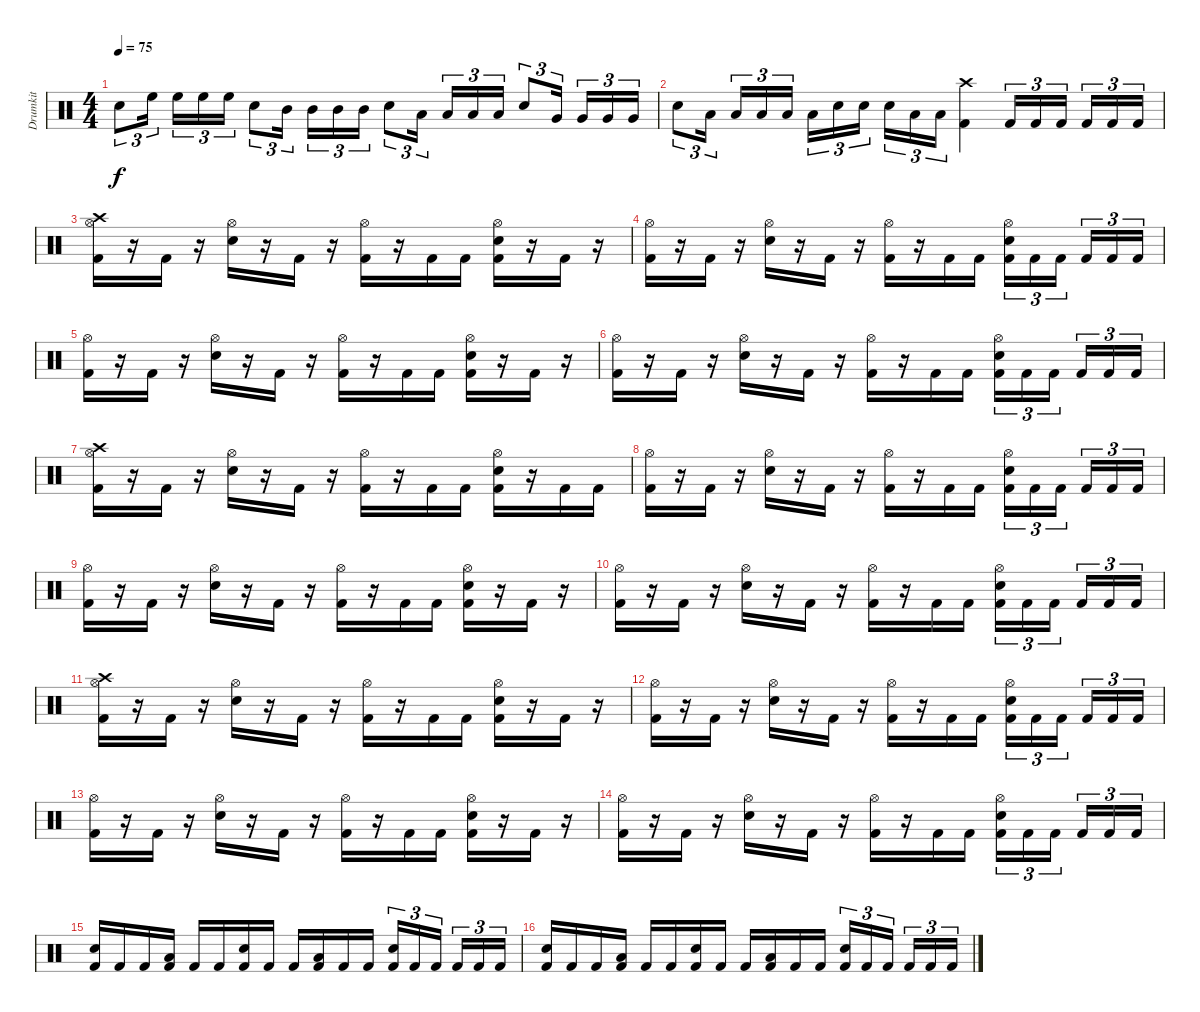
\track ("Drumkit" "Drumkit") {instrument percussion}
\staff {score}
\articulation defaults
\ts (4 4)
\tempo 75
\clef neutral
\ks c "Snare (hit) 2".8{tu (3 2) dy f} "High Floor Tom (hit)".16{tu (3 2)} "High Floor Tom (hit)".16{tu (3 2)} "High Floor Tom (hit)".16{tu (3 2)} "High Floor Tom (hit)".16{tu (3 2)} "Snare (hit) 2".8{tu (3 2)} "Mid Tom (hit)".16{tu (3 2)} "Mid Tom (hit)".16{tu (3 2)} "Mid Tom (hit)".16{tu (3 2)} "Mid Tom (hit)".16{tu (3 2)} "Snare (hit) 2".8{tu (3 2)} "Low Tom (hit)".16{tu (3 2)} "Low Tom (hit)".16{tu (3 2)} "Low Tom (hit)".16{tu (3 2)} "Low Tom (hit)".16{tu (3 2)} "Snare (hit) 2".8{tu (3 2)} "Very Low Tom (hit)".16{tu (3 2)} "Very Low Tom (hit)".16{tu (3 2)} "Very Low Tom (hit)".16{tu (3 2)} "Very Low Tom (hit)".16{tu (3 2)}
|
"Snare (hit) 2".8{tu (3 2)} "Low Floor Tom (hit)".16{tu (3 2)} "Low Floor Tom (hit)".16{tu (3 2)} "Low Floor Tom (hit)".16{tu (3 2)} "Low Floor Tom (hit)".16{tu (3 2)} "Low Floor Tom (hit)".16{tu (3 2)} "Snare (hit) 2".16{tu (3 2)} "Snare (hit) 2".16{tu (3 2)} "Snare (hit) 2".16{tu (3 2)} "Low Tom (hit)".16{tu (3 2)} "Low Tom (hit)".16{tu (3 2)} ("Crash high (hit)" "Kick (hit) 2").4 "Kick (hit) 2".16{tu (3 2)} "Kick (hit) 2".16{tu (3 2)} "Kick (hit) 2".16{tu (3 2)} "Kick (hit) 2".16{tu (3 2)} "Kick (hit) 2".16{tu (3 2)} "Kick (hit) 2".16{tu (3 2)} |
("Crash high (hit)" "Hi-Hat (open)" "Kick (hit) 2").16 r.16 "Kick (hit) 2".16 r.16 ("Hi-Hat (open)" "Snare (hit) 2").16 r.16 "Kick (hit) 2".16 r.16 ("Hi-Hat (open)" "Kick (hit) 2").16 r.16 "Kick (hit) 2".16 "Kick (hit) 2".16 ("Hi-Hat (open)" "Snare (hit) 2" "Kick (hit) 2").16 r.16 "Kick (hit) 2".16 r.16 |
("Hi-Hat (open)" "Kick (hit) 2").16 r.16 "Kick (hit) 2".16 r.16 ("Hi-Hat (open)" "Snare (hit) 2").16 r.16 "Kick (hit) 2".16 r.16 ("Hi-Hat (open)" "Kick (hit) 2").16 r.16 "Kick (hit) 2".16 "Kick (hit) 2".16 ("Hi-Hat (open)" "Snare (hit) 2" "Kick (hit) 2").16{tu (3 2)} "Kick (hit) 2".16{tu (3 2)} "Kick (hit) 2".16{tu (3 2)} "Kick (hit) 2".16{tu (3 2)} "Kick (hit) 2".16{tu (3 2)} "Kick (hit) 2".16{tu (3 2)} |
("Hi-Hat (open)" "Kick (hit) 2").16 r.16 "Kick (hit) 2".16 r.16 ("Hi-Hat (open)" "Snare (hit) 2").16 r.16 "Kick (hit) 2".16 r.16 ("Hi-Hat (open)" "Kick (hit) 2").16 r.16 "Kick (hit) 2".16 "Kick (hit) 2".16 ("Hi-Hat (open)" "Snare (hit) 2" "Kick (hit) 2").16 r.16 "Kick (hit) 2".16 r.16 |
("Hi-Hat (open)" "Kick (hit) 2").16 r.16 "Kick (hit) 2".16 r.16 ("Hi-Hat (open)" "Snare (hit) 2").16 r.16 "Kick (hit) 2".16 r.16 ("Hi-Hat (open)" "Kick (hit) 2").16 r.16 "Kick (hit) 2".16 "Kick (hit) 2".16 ("Hi-Hat (open)" "Snare (hit) 2" "Kick (hit) 2").16{tu (3 2)} "Kick (hit) 2".16{tu (3 2)} "Kick (hit) 2".16{tu (3 2)} "Kick (hit) 2".16{tu (3 2)} "Kick (hit) 2".16{tu (3 2)} "Kick (hit) 2".16{tu (3 2)} |
("Crash high (hit)" "Hi-Hat (open)" "Kick (hit) 2").16 r.16 "Kick (hit) 2".16 r.16 ("Hi-Hat (open)" "Snare (hit) 2").16 r.16 "Kick (hit) 2".16 r.16 ("Hi-Hat (open)" "Kick (hit) 2").16 r.16 "Kick (hit) 2".16 "Kick (hit) 2".16 ("Hi-Hat (open)" "Snare (hit) 2" "Kick (hit) 2").16 r.16 "Kick (hit) 2".16 "Kick (hit) 2".16 |
("Hi-Hat (open)" "Kick (hit) 2").16 r.16 "Kick (hit) 2".16 r.16 ("Hi-Hat (open)" "Snare (hit) 2").16 r.16 "Kick (hit) 2".16 r.16 ("Hi-Hat (open)" "Kick (hit) 2").16 r.16 "Kick (hit) 2".16 "Kick (hit) 2".16 ("Hi-Hat (open)" "Snare (hit) 2" "Kick (hit) 2").16{tu (3 2)} "Kick (hit) 2".16{tu (3 2)} "Kick (hit) 2".16{tu (3 2)} "Kick (hit) 2".16{tu (3 2)} "Kick (hit) 2".16{tu (3 2)} "Kick (hit) 2".16{tu (3 2)} |
("Hi-Hat (open)" "Kick (hit) 2").16 r.16 "Kick (hit) 2".16 r.16 ("Hi-Hat (open)" "Snare (hit) 2").16 r.16 "Kick (hit) 2".16 r.16 ("Hi-Hat (open)" "Kick (hit) 2").16 r.16 "Kick (hit) 2".16 "Kick (hit) 2".16 ("Hi-Hat (open)" "Snare (hit) 2" "Kick (hit) 2").16 r.16 "Kick (hit) 2".16 r.16 |
("Hi-Hat (open)" "Kick (hit) 2").16 r.16 "Kick (hit) 2".16 r.16 ("Hi-Hat (open)" "Snare (hit) 2").16 r.16 "Kick (hit) 2".16 r.16 ("Hi-Hat (open)" "Kick (hit) 2").16 r.16 "Kick (hit) 2".16 "Kick (hit) 2".16 ("Hi-Hat (open)" "Snare (hit) 2" "Kick (hit) 2").16{tu (3 2)} "Kick (hit) 2".16{tu (3 2)} "Kick (hit) 2".16{tu (3 2)} "Kick (hit) 2".16{tu (3 2)} "Kick (hit) 2".16{tu (3 2)} "Kick (hit) 2".16{tu (3 2)} |
("Crash high (hit)" "Hi-Hat (open)" "Kick (hit) 2").16 r.16 "Kick (hit) 2".16 r.16 ("Hi-Hat (open)" "Snare (hit) 2").16 r.16 "Kick (hit) 2".16 r.16 ("Hi-Hat (open)" "Kick (hit) 2").16 r.16 "Kick (hit) 2".16 "Kick (hit) 2".16 ("Hi-Hat (open)" "Snare (hit) 2" "Kick (hit) 2").16 r.16 "Kick (hit) 2".16 r.16 |
("Hi-Hat (open)" "Kick (hit) 2").16 r.16 "Kick (hit) 2".16 r.16 ("Hi-Hat (open)" "Snare (hit) 2").16 r.16 "Kick (hit) 2".16 r.16 ("Hi-Hat (open)" "Kick (hit) 2").16 r.16 "Kick (hit) 2".16 "Kick (hit) 2".16 ("Hi-Hat (open)" "Snare (hit) 2" "Kick (hit) 2").16{tu (3 2)} "Kick (hit) 2".16{tu (3 2)} "Kick (hit) 2".16{tu (3 2)} "Kick (hit) 2".16{tu (3 2)} "Kick (hit) 2".16{tu (3 2)} "Kick (hit) 2".16{tu (3 2)} |
("Hi-Hat (open)" "Kick (hit) 2").16 r.16 "Kick (hit) 2".16 r.16 ("Hi-Hat (open)" "Snare (hit) 2").16 r.16 "Kick (hit) 2".16 r.16 ("Hi-Hat (open)" "Kick (hit) 2").16 r.16 "Kick (hit) 2".16 "Kick (hit) 2".16 ("Hi-Hat (open)" "Snare (hit) 2" "Kick (hit) 2").16 r.16 "Kick (hit) 2".16 r.16 |
("Hi-Hat (open)" "Kick (hit) 2").16 r.16 "Kick (hit) 2".16 r.16 ("Hi-Hat (open)" "Snare (hit) 2").16 r.16 "Kick (hit) 2".16 r.16 ("Hi-Hat (open)" "Kick (hit) 2").16 r.16 "Kick (hit) 2".16 "Kick (hit) 2".16 ("Hi-Hat (open)" "Snare (hit) 2" "Kick (hit) 2").16{tu (3 2)} "Kick (hit) 2".16{tu (3 2)} "Kick (hit) 2".16{tu (3 2)} "Kick (hit) 2".16{tu (3 2)} "Kick (hit) 2".16{tu (3 2)} "Kick (hit) 2".16{tu (3 2)} |
("Snare (hit) 2" "Kick (hit) 2").16 "Kick (hit) 2".16 "Kick (hit) 2".16 ("Low Floor Tom (hit)" "Kick (hit) 2").16 "Kick (hit) 2".16 "Kick (hit) 2".16 ("Snare (hit) 2" "Kick (hit) 2").16 "Kick (hit) 2".16 "Kick (hit) 2".16 ("Low Floor Tom (hit)" "Kick (hit) 2").16 "Kick (hit) 2".16 "Kick (hit) 2".16 ("Snare (hit) 2" "Kick (hit) 2").16{tu (3 2)} "Kick (hit) 2".16{tu (3 2)} "Kick (hit) 2".16{tu (3 2)} "Kick (hit) 2".16{tu (3 2)} "Kick (hit) 2".16{tu (3 2)} "Kick (hit) 2".16{tu (3 2)} |
("Snare (hit) 2" "Kick (hit) 2").16 "Kick (hit) 2".16 "Kick (hit) 2".16 ("Low Floor Tom (hit)" "Kick (hit) 2").16 "Kick (hit) 2".16 "Kick (hit) 2".16 ("Snare (hit) 2" "Kick (hit) 2").16 "Kick (hit) 2".16 "Kick (hit) 2".16 ("Low Floor Tom (hit)" "Kick (hit) 2").16 "Kick (hit) 2".16 "Kick (hit) 2".16 ("Snare (hit) 2" "Kick (hit) 2").16{tu (3 2)} "Kick (hit) 2".16{tu (3 2)} "Kick (hit) 2".16{tu (3 2)} "Kick (hit) 2".16{tu (3 2)} "Kick (hit) 2".16{tu (3 2)} "Kick (hit) 2".16{tu (3 2)}
